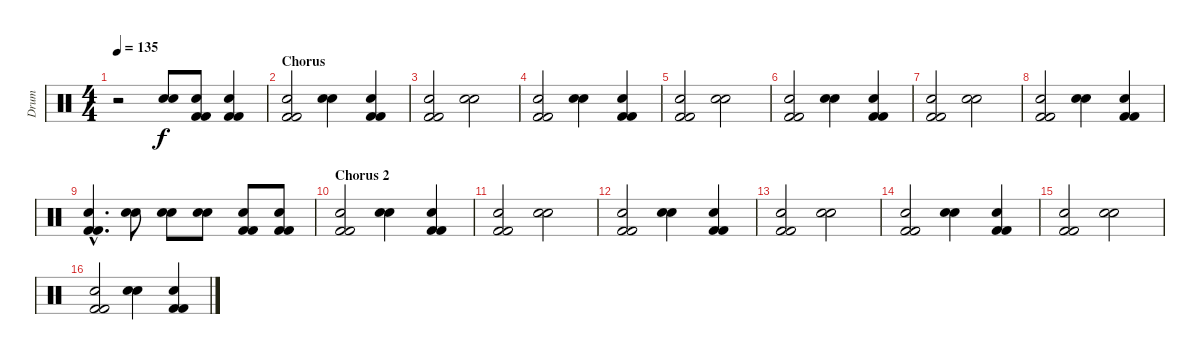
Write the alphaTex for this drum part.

\track ("Drum" "Drum") {instrument percussion}
\staff {score}
\articulation defaults
\ts (4 4)
\tempo 135
\clef neutral
\ks c
r.2{dy f} ("Electric Snare (hit)" "Electric Snare (hit)").8 ("Electric Snare (hit)" "Kick (hit) 2" "Kick (hit) 2").8 ("Electric Snare (hit)" "Kick (hit) 2" "Kick (hit) 2").4 |
\section ("" "Chorus")
("Electric Snare (hit)" "Kick (hit) 2" "Kick (hit) 2").2 ("Electric Snare (hit)" "Electric Snare (hit)").4 ("Electric Snare (hit)" "Kick (hit) 2" "Kick (hit) 2").4 |
("Electric Snare (hit)" "Kick (hit) 2" "Kick (hit) 2").2 ("Electric Snare (hit)" "Electric Snare (hit)").2 |
("Electric Snare (hit)" "Kick (hit) 2" "Kick (hit) 2").2 ("Electric Snare (hit)" "Electric Snare (hit)").4 ("Electric Snare (hit)" "Kick (hit) 2" "Kick (hit) 2").4 |
("Electric Snare (hit)" "Kick (hit) 2" "Kick (hit) 2").2 ("Electric Snare (hit)" "Electric Snare (hit)").2 |
("Electric Snare (hit)" "Kick (hit) 2" "Kick (hit) 2").2 ("Electric Snare (hit)" "Electric Snare (hit)").4 ("Electric Snare (hit)" "Kick (hit) 2" "Kick (hit) 2").4 |
("Electric Snare (hit)" "Kick (hit) 2" "Kick (hit) 2").2 ("Electric Snare (hit)" "Electric Snare (hit)").2 |
("Electric Snare (hit)" "Kick (hit) 2" "Kick (hit) 2").2 ("Electric Snare (hit)" "Electric Snare (hit)").4 ("Electric Snare (hit)" "Kick (hit) 2" "Kick (hit) 2").4 |
("Electric Snare (hit)"{hac} "Kick (hit) 2"{hac} "Kick (hit) 2"{hac}).4{d} ("Electric Snare (hit)" "Electric Snare (hit)").8 ("Electric Snare (hit)" "Electric Snare (hit)").8 ("Electric Snare (hit)" "Electric Snare (hit)").8 ("Electric Snare (hit)" "Kick (hit) 2" "Kick (hit) 2").8 ("Electric Snare (hit)" "Kick (hit) 2" "Kick (hit) 2").8 |
\section ("" "Chorus 2")
("Electric Snare (hit)" "Kick (hit) 2" "Kick (hit) 2").2 ("Electric Snare (hit)" "Electric Snare (hit)").4 ("Electric Snare (hit)" "Kick (hit) 2" "Kick (hit) 2").4 |
("Electric Snare (hit)" "Kick (hit) 2" "Kick (hit) 2").2 ("Electric Snare (hit)" "Electric Snare (hit)").2 |
("Electric Snare (hit)" "Kick (hit) 2" "Kick (hit) 2").2 ("Electric Snare (hit)" "Electric Snare (hit)").4 ("Electric Snare (hit)" "Kick (hit) 2" "Kick (hit) 2").4 |
("Electric Snare (hit)" "Kick (hit) 2" "Kick (hit) 2").2 ("Electric Snare (hit)" "Electric Snare (hit)").2 |
("Electric Snare (hit)" "Kick (hit) 2" "Kick (hit) 2").2 ("Electric Snare (hit)" "Electric Snare (hit)").4 ("Electric Snare (hit)" "Kick (hit) 2" "Kick (hit) 2").4 |
("Electric Snare (hit)" "Kick (hit) 2" "Kick (hit) 2").2 ("Electric Snare (hit)" "Electric Snare (hit)").2 |
("Electric Snare (hit)" "Kick (hit) 2" "Kick (hit) 2").2 ("Electric Snare (hit)" "Electric Snare (hit)").4 ("Electric Snare (hit)" "Kick (hit) 2" "Kick (hit) 2").4
